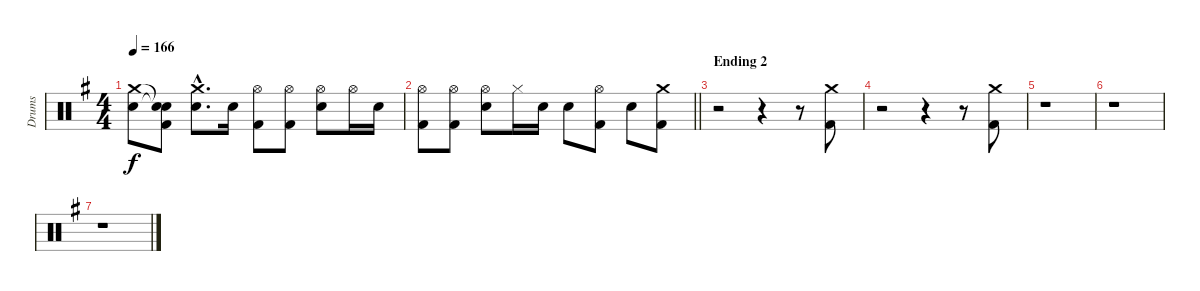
\track ("Drums" "Drums") {instrument percussion}
\staff {score}
\articulation defaults
\ts (4 4)
\tempo 166
\clef neutral
\ks g
("Crash medium (hit)" "Electric Snare (hit)").8{dy f} ("Snare (hit)"{t} "Snare (hit)"{t} "Kick (hit) 2").8 ("Crash medium (hit)"{hac} "Electric Snare (hit)"{hac}).8{d} "Electric Snare (hit)".16 ("Hi-Hat (open)" "Kick (hit) 2").8 ("Hi-Hat (open)" "Kick (hit) 2").8 ("Hi-Hat (open)" "Electric Snare (hit)").8 "Hi-Hat (open)".16 "Electric Snare (hit)".16 |
\barLineRight lightlight
("Hi-Hat (open)" "Kick (hit) 2").8 ("Hi-Hat (open)" "Kick (hit) 2").8 ("Hi-Hat (open)" "Electric Snare (hit)").8 "Hi-Hat (closed)".16 "Electric Snare (hit)".16 "Electric Snare (hit)".8 ("Hi-Hat (open)" "Kick (hit) 2").8 "Electric Snare (hit)".8 ("Crash medium (hit)" "Kick (hit) 2").8 |
\section ("" "Ending 2")
r.2 r.4 r.8 ("Crash medium (hit)" "Kick (hit) 2").8 |
r.2 r.4 r.8 ("Crash medium (hit)" "Kick (hit) 2").8 |
r.1 |
r.1 |
r.1
